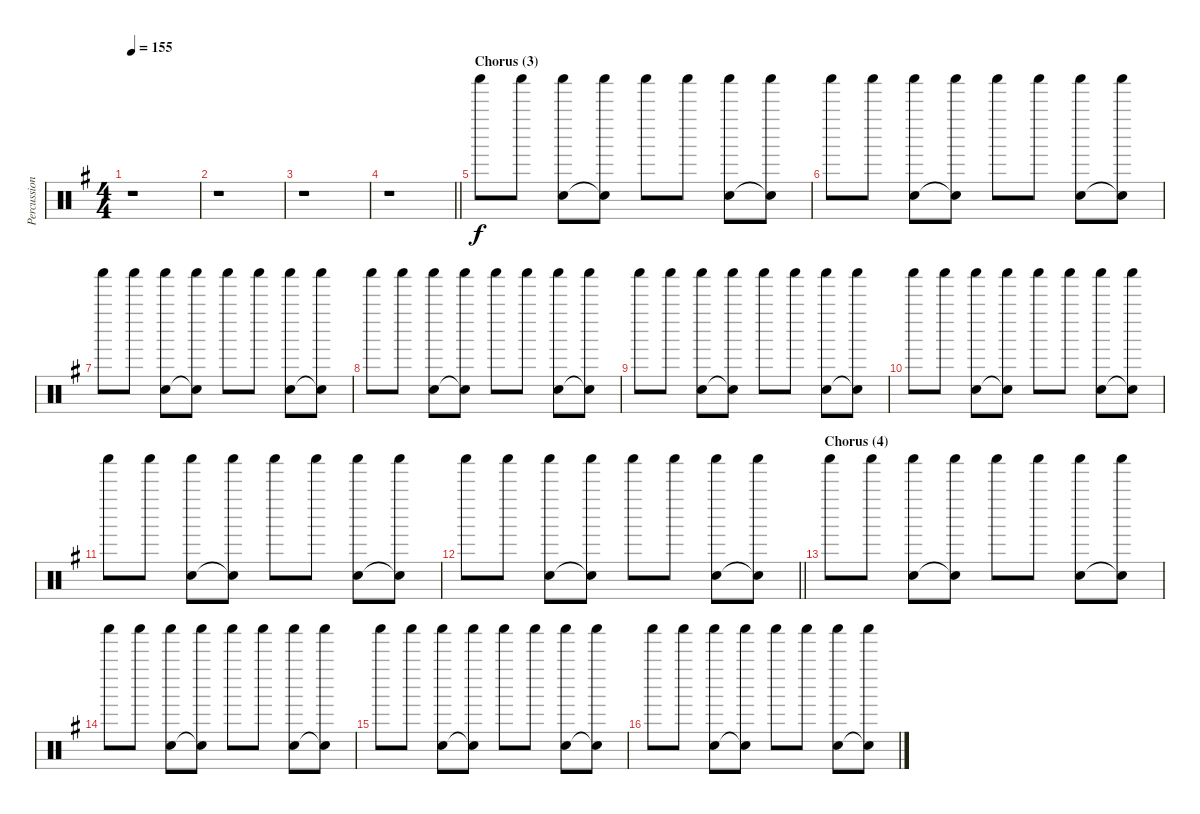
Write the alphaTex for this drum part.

\track ("Percussion" "Percussion") {instrument percussion}
\staff {score}
\articulation defaults
\ts (4 4)
\tempo 155
\clef neutral
\ks eminor
r.1{dy f} |
r.1 |
r.1 |
\barLineRight lightlight
r.1 |
\section ("" "Chorus (3)")
"Shaker (hit)".8 "Shaker (hit)".8 ("Hand Clap (hit)" "Shaker (hit)").8 ("Snare (hit)"{t} "Shaker (hit)").8 "Shaker (hit)".8 "Shaker (hit)".8 ("Hand Clap (hit)" "Shaker (hit)").8 ("Snare (hit)"{t} "Shaker (hit)").8 |
"Shaker (hit)".8 "Shaker (hit)".8 ("Hand Clap (hit)" "Shaker (hit)").8 ("Snare (hit)"{t} "Shaker (hit)").8 "Shaker (hit)".8 "Shaker (hit)".8 ("Hand Clap (hit)" "Shaker (hit)").8 ("Snare (hit)"{t} "Shaker (hit)").8 |
"Shaker (hit)".8 "Shaker (hit)".8 ("Hand Clap (hit)" "Shaker (hit)").8 ("Snare (hit)"{t} "Shaker (hit)").8 "Shaker (hit)".8 "Shaker (hit)".8 ("Hand Clap (hit)" "Shaker (hit)").8 ("Snare (hit)"{t} "Shaker (hit)").8 |
"Shaker (hit)".8 "Shaker (hit)".8 ("Hand Clap (hit)" "Shaker (hit)").8 ("Snare (hit)"{t} "Shaker (hit)").8 "Shaker (hit)".8 "Shaker (hit)".8 ("Hand Clap (hit)" "Shaker (hit)").8 ("Snare (hit)"{t} "Shaker (hit)").8 |
"Shaker (hit)".8 "Shaker (hit)".8 ("Hand Clap (hit)" "Shaker (hit)").8 ("Snare (hit)"{t} "Shaker (hit)").8 "Shaker (hit)".8 "Shaker (hit)".8 ("Hand Clap (hit)" "Shaker (hit)").8 ("Snare (hit)"{t} "Shaker (hit)").8 |
"Shaker (hit)".8 "Shaker (hit)".8 ("Hand Clap (hit)" "Shaker (hit)").8 ("Snare (hit)"{t} "Shaker (hit)").8 "Shaker (hit)".8 "Shaker (hit)".8 ("Hand Clap (hit)" "Shaker (hit)").8 ("Snare (hit)"{t} "Shaker (hit)").8 |
"Shaker (hit)".8 "Shaker (hit)".8 ("Hand Clap (hit)" "Shaker (hit)").8 ("Snare (hit)"{t} "Shaker (hit)").8 "Shaker (hit)".8 "Shaker (hit)".8 ("Hand Clap (hit)" "Shaker (hit)").8 ("Snare (hit)"{t} "Shaker (hit)").8 |
\barLineRight lightlight "Shaker (hit)".8 "Shaker (hit)".8
("Hand Clap (hit)" "Shaker (hit)").8 ("Snare (hit)"{t} "Shaker (hit)").8 "Shaker (hit)".8 "Shaker (hit)".8 ("Hand Clap (hit)" "Shaker (hit)").8 ("Snare (hit)"{t} "Shaker (hit)").8 |
\section ("" "Chorus (4)")
"Shaker (hit)".8 "Shaker (hit)".8 ("Hand Clap (hit)" "Shaker (hit)").8 ("Snare (hit)"{t} "Shaker (hit)").8 "Shaker (hit)".8 "Shaker (hit)".8 ("Hand Clap (hit)" "Shaker (hit)").8 ("Snare (hit)"{t} "Shaker (hit)").8 |
"Shaker (hit)".8 "Shaker (hit)".8 ("Hand Clap (hit)" "Shaker (hit)").8 ("Snare (hit)"{t} "Shaker (hit)").8 "Shaker (hit)".8 "Shaker (hit)".8 ("Hand Clap (hit)" "Shaker (hit)").8 ("Snare (hit)"{t} "Shaker (hit)").8 |
"Shaker (hit)".8 "Shaker (hit)".8 ("Hand Clap (hit)" "Shaker (hit)").8 ("Snare (hit)"{t} "Shaker (hit)").8 "Shaker (hit)".8 "Shaker (hit)".8 ("Hand Clap (hit)" "Shaker (hit)").8 ("Snare (hit)"{t} "Shaker (hit)").8 |
"Shaker (hit)".8 "Shaker (hit)".8 ("Hand Clap (hit)" "Shaker (hit)").8 ("Snare (hit)"{t} "Shaker (hit)").8 "Shaker (hit)".8 "Shaker (hit)".8 ("Hand Clap (hit)" "Shaker (hit)").8 ("Snare (hit)"{t} "Shaker (hit)").8
